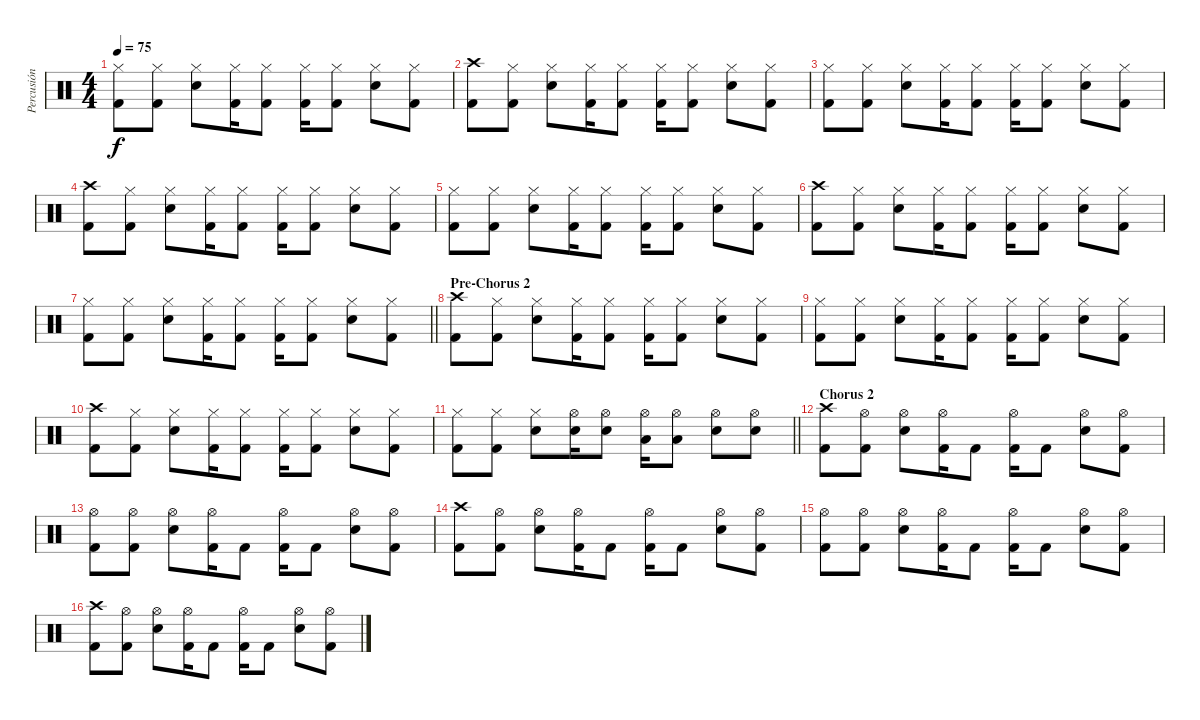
\track ("Percusión" "Percusión") {instrument percussion}
\staff {score}
\articulation defaults
\ts (4 4)
\tempo 75
\clef neutral
\ks c
("Hi-Hat (closed)" "Kick (hit) 2").8{dy f} ("Hi-Hat (closed)" "Kick (hit) 2").8 ("Hi-Hat (closed)" "Snare (hit) 2").8 ("Hi-Hat (closed)" "Kick (hit) 2").16 ("Hi-Hat (closed)" "Kick (hit) 2").8 ("Hi-Hat (closed)" "Kick (hit) 2").16 ("Hi-Hat (closed)" "Kick (hit) 2").8 ("Hi-Hat (closed)" "Snare (hit) 2").8 ("Hi-Hat (closed)" "Kick (hit) 2").8 |
("Crash high (hit)" "Kick (hit) 2").8 ("Hi-Hat (closed)" "Kick (hit) 2").8 ("Hi-Hat (closed)" "Snare (hit) 2").8 ("Hi-Hat (closed)" "Kick (hit) 2").16 ("Hi-Hat (closed)" "Kick (hit) 2").8 ("Hi-Hat (closed)" "Kick (hit) 2").16 ("Hi-Hat (closed)" "Kick (hit) 2").8 ("Hi-Hat (closed)" "Snare (hit) 2").8 ("Hi-Hat (closed)" "Kick (hit) 2").8 |
("Hi-Hat (closed)" "Kick (hit) 2").8 ("Hi-Hat (closed)" "Kick (hit) 2").8 ("Hi-Hat (closed)" "Snare (hit) 2").8 ("Hi-Hat (closed)" "Kick (hit) 2").16 ("Hi-Hat (closed)" "Kick (hit) 2").8 ("Hi-Hat (closed)" "Kick (hit) 2").16 ("Hi-Hat (closed)" "Kick (hit) 2").8 ("Hi-Hat (closed)" "Snare (hit) 2").8 ("Hi-Hat (closed)" "Kick (hit) 2").8 |
("Crash high (hit)" "Kick (hit) 2").8 ("Hi-Hat (closed)" "Kick (hit) 2").8 ("Hi-Hat (closed)" "Snare (hit) 2").8 ("Hi-Hat (closed)" "Kick (hit) 2").16 ("Hi-Hat (closed)" "Kick (hit) 2").8 ("Hi-Hat (closed)" "Kick (hit) 2").16 ("Hi-Hat (closed)" "Kick (hit) 2").8 ("Hi-Hat (closed)" "Snare (hit) 2").8 ("Hi-Hat (closed)" "Kick (hit) 2").8 |
("Hi-Hat (closed)" "Kick (hit) 2").8 ("Hi-Hat (closed)" "Kick (hit) 2").8 ("Hi-Hat (closed)" "Snare (hit) 2").8 ("Hi-Hat (closed)" "Kick (hit) 2").16 ("Hi-Hat (closed)" "Kick (hit) 2").8 ("Hi-Hat (closed)" "Kick (hit) 2").16 ("Hi-Hat (closed)" "Kick (hit) 2").8 ("Hi-Hat (closed)" "Snare (hit) 2").8 ("Hi-Hat (closed)" "Kick (hit) 2").8 |
("Crash high (hit)" "Kick (hit) 2").8 ("Hi-Hat (closed)" "Kick (hit) 2").8 ("Hi-Hat (closed)" "Snare (hit) 2").8 ("Hi-Hat (closed)" "Kick (hit) 2").16 ("Hi-Hat (closed)" "Kick (hit) 2").8 ("Hi-Hat (closed)" "Kick (hit) 2").16 ("Hi-Hat (closed)" "Kick (hit) 2").8 ("Hi-Hat (closed)" "Snare (hit) 2").8 ("Hi-Hat (closed)" "Kick (hit) 2").8 |
\barLineRight lightlight
("Hi-Hat (closed)" "Kick (hit) 2").8 ("Hi-Hat (closed)" "Kick (hit) 2").8 ("Hi-Hat (closed)" "Snare (hit) 2").8 ("Hi-Hat (closed)" "Kick (hit) 2").16 ("Hi-Hat (closed)" "Kick (hit) 2").8 ("Hi-Hat (closed)" "Kick (hit) 2").16 ("Hi-Hat (closed)" "Kick (hit) 2").8 ("Hi-Hat (closed)" "Snare (hit) 2").8 ("Hi-Hat (closed)" "Kick (hit) 2").8 |
\section ("" "Pre-Chorus 2")
("Crash high (hit)" "Kick (hit) 2").8 ("Hi-Hat (closed)" "Kick (hit) 2").8 ("Hi-Hat (closed)" "Snare (hit) 2").8 ("Hi-Hat (closed)" "Kick (hit) 2").16 ("Hi-Hat (closed)" "Kick (hit) 2").8 ("Hi-Hat (closed)" "Kick (hit) 2").16 ("Hi-Hat (closed)" "Kick (hit) 2").8 ("Hi-Hat (closed)" "Snare (hit) 2").8 ("Hi-Hat (closed)" "Kick (hit) 2").8 |
("Hi-Hat (closed)" "Kick (hit) 2").8 ("Hi-Hat (closed)" "Kick (hit) 2").8 ("Hi-Hat (closed)" "Snare (hit) 2").8 ("Hi-Hat (closed)" "Kick (hit) 2").16 ("Hi-Hat (closed)" "Kick (hit) 2").8 ("Hi-Hat (closed)" "Kick (hit) 2").16 ("Hi-Hat (closed)" "Kick (hit) 2").8 ("Hi-Hat (closed)" "Snare (hit) 2").8 ("Hi-Hat (closed)" "Kick (hit) 2").8 |
("Crash high (hit)" "Kick (hit) 2").8 ("Hi-Hat (closed)" "Kick (hit) 2").8 ("Hi-Hat (closed)" "Snare (hit) 2").8 ("Hi-Hat (closed)" "Kick (hit) 2").16 ("Hi-Hat (closed)" "Kick (hit) 2").8 ("Hi-Hat (closed)" "Kick (hit) 2").16 ("Hi-Hat (closed)" "Kick (hit) 2").8 ("Hi-Hat (closed)" "Snare (hit) 2").8 ("Hi-Hat (closed)" "Kick (hit) 2").8 |
\barLineRight lightlight
("Hi-Hat (closed)" "Kick (hit) 2").8 ("Hi-Hat (closed)" "Kick (hit) 2").8 ("Hi-Hat (closed)" "Snare (hit) 2").8 ("Hi-Hat (open)" "Snare (hit) 2").16 ("Hi-Hat (open)" "Snare (hit) 2").8 ("Hi-Hat (open)" "Low Tom (hit)").16 ("Hi-Hat (open)" "Low Tom (hit)").8 ("Hi-Hat (open)" "Snare (hit) 2").8 ("Hi-Hat (open)" "Snare (hit) 2").8 |
\section ("" "Chorus 2")
("Crash high (hit)" "Kick (hit) 2").8 ("Hi-Hat (open)" "Kick (hit) 2").8 ("Hi-Hat (open)" "Snare (hit) 2").8 ("Hi-Hat (open)" "Kick (hit) 2").16 "Kick (hit) 2".8 ("Hi-Hat (open)" "Kick (hit) 2").16 "Kick (hit) 2".8 ("Hi-Hat (open)" "Snare (hit) 2").8 ("Hi-Hat (open)" "Kick (hit) 2").8 |
("Hi-Hat (open)" "Kick (hit) 2").8 ("Hi-Hat (open)" "Kick (hit) 2").8 ("Hi-Hat (open)" "Snare (hit) 2").8 ("Hi-Hat (open)" "Kick (hit) 2").16 "Kick (hit) 2".8 ("Hi-Hat (open)" "Kick (hit) 2").16 "Kick (hit) 2".8 ("Hi-Hat (open)" "Snare (hit) 2").8 ("Hi-Hat (open)" "Kick (hit) 2").8 |
("Crash high (hit)" "Kick (hit) 2").8 ("Hi-Hat (open)" "Kick (hit) 2").8 ("Hi-Hat (open)" "Snare (hit) 2").8 ("Hi-Hat (open)" "Kick (hit) 2").16 "Kick (hit) 2".8 ("Hi-Hat (open)" "Kick (hit) 2").16 "Kick (hit) 2".8 ("Hi-Hat (open)" "Snare (hit) 2").8 ("Hi-Hat (open)" "Kick (hit) 2").8 |
("Hi-Hat (open)" "Kick (hit) 2").8 ("Hi-Hat (open)" "Kick (hit) 2").8 ("Hi-Hat (open)" "Snare (hit) 2").8 ("Hi-Hat (open)" "Kick (hit) 2").16 "Kick (hit) 2".8 ("Hi-Hat (open)" "Kick (hit) 2").16 "Kick (hit) 2".8 ("Hi-Hat (open)" "Snare (hit) 2").8 ("Hi-Hat (open)" "Kick (hit) 2").8 |
("Crash high (hit)" "Kick (hit) 2").8 ("Hi-Hat (open)" "Kick (hit) 2").8 ("Hi-Hat (open)" "Snare (hit) 2").8 ("Hi-Hat (open)" "Kick (hit) 2").16 "Kick (hit) 2".8 ("Hi-Hat (open)" "Kick (hit) 2").16 "Kick (hit) 2".8 ("Hi-Hat (open)" "Snare (hit) 2").8 ("Hi-Hat (open)" "Kick (hit) 2").8
